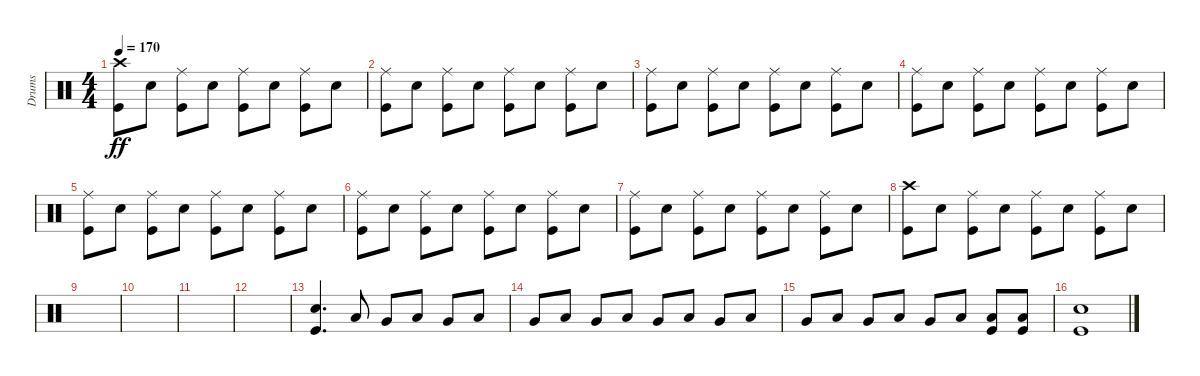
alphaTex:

\track ("Drums" "Drums") {instrument percussion}
\staff {score}
\articulation defaults
\ts (4 4)
\tempo 170
\clef neutral
\ks c
("Crash high (hit)" "Kick (hit)").8{dy ff} "Snare (hit) 2".8 ("Ride (middle)" "Kick (hit)").8 "Snare (hit) 2".8 ("Ride (middle)" "Kick (hit)").8 "Snare (hit) 2".8 ("Ride (middle)" "Kick (hit)").8 "Snare (hit) 2".8 |
("Ride (middle)" "Kick (hit)").8 "Snare (hit) 2".8 ("Ride (middle)" "Kick (hit)").8 "Snare (hit) 2".8 ("Ride (middle)" "Kick (hit)").8 "Snare (hit) 2".8 ("Ride (middle)" "Kick (hit)").8 "Snare (hit) 2".8 |
("Ride (middle)" "Kick (hit)").8 "Snare (hit) 2".8 ("Ride (middle)" "Kick (hit)").8 "Snare (hit) 2".8 ("Ride (middle)" "Kick (hit)").8 "Snare (hit) 2".8 ("Ride (middle)" "Kick (hit)").8 "Snare (hit) 2".8 |
("Ride (middle)" "Kick (hit)").8 "Snare (hit) 2".8 ("Ride (middle)" "Kick (hit)").8 "Snare (hit) 2".8 ("Ride (middle)" "Kick (hit)").8 "Snare (hit) 2".8 ("Ride (middle)" "Kick (hit)").8 "Snare (hit) 2".8 |
("Ride (middle)" "Kick (hit)").8 "Snare (hit) 2".8 ("Ride (middle)" "Kick (hit)").8 "Snare (hit) 2".8 ("Ride (middle)" "Kick (hit)").8 "Snare (hit) 2".8 ("Ride (middle)" "Kick (hit)").8 "Snare (hit) 2".8 |
("Ride (middle)" "Kick (hit)").8 "Snare (hit) 2".8 ("Ride (middle)" "Kick (hit)").8 "Snare (hit) 2".8 ("Ride (middle)" "Kick (hit)").8 "Snare (hit) 2".8 ("Ride (middle)" "Kick (hit)").8 "Snare (hit) 2".8 |
("Ride (middle)" "Kick (hit)").8 "Snare (hit) 2".8 ("Ride (middle)" "Kick (hit)").8 "Snare (hit) 2".8 ("Ride (middle)" "Kick (hit)").8 "Snare (hit) 2".8 ("Ride (middle)" "Kick (hit)").8 "Snare (hit) 2".8 |
("Crash high (hit)" "Kick (hit)").8 "Snare (hit) 2".8 ("Ride (middle)" "Kick (hit)").8 "Snare (hit) 2".8 ("Ride (middle)" "Kick (hit)").8 "Snare (hit) 2".8 ("Ride (middle)" "Kick (hit)").8 "Snare (hit) 2".8 |
|
|
|
|
("Snare (hit) 2" "Kick (hit)").4{d} "Low Floor Tom (hit)".8{volume 0} "Very Low Tom (hit)".8{volume 14} "Low Floor Tom (hit)".8 "Very Low Tom (hit)".8 "Low Floor Tom (hit)".8 |
"Very Low Tom (hit)".8 "Low Floor Tom (hit)".8 "Very Low Tom (hit)".8 "Low Floor Tom (hit)".8 "Very Low Tom (hit)".8 "Low Floor Tom (hit)".8 "Very Low Tom (hit)".8 "Low Floor Tom (hit)".8 |
"Very Low Tom (hit)".8 "Low Floor Tom (hit)".8 "Very Low Tom (hit)".8 "Low Floor Tom (hit)".8 "Very Low Tom (hit)".8 "Low Floor Tom (hit)".8 ("Low Floor Tom (hit)" "Kick (hit)").8 ("Low Floor Tom (hit)" "Kick (hit)").8 |
("Snare (hit) 2" "Kick (hit)").1
